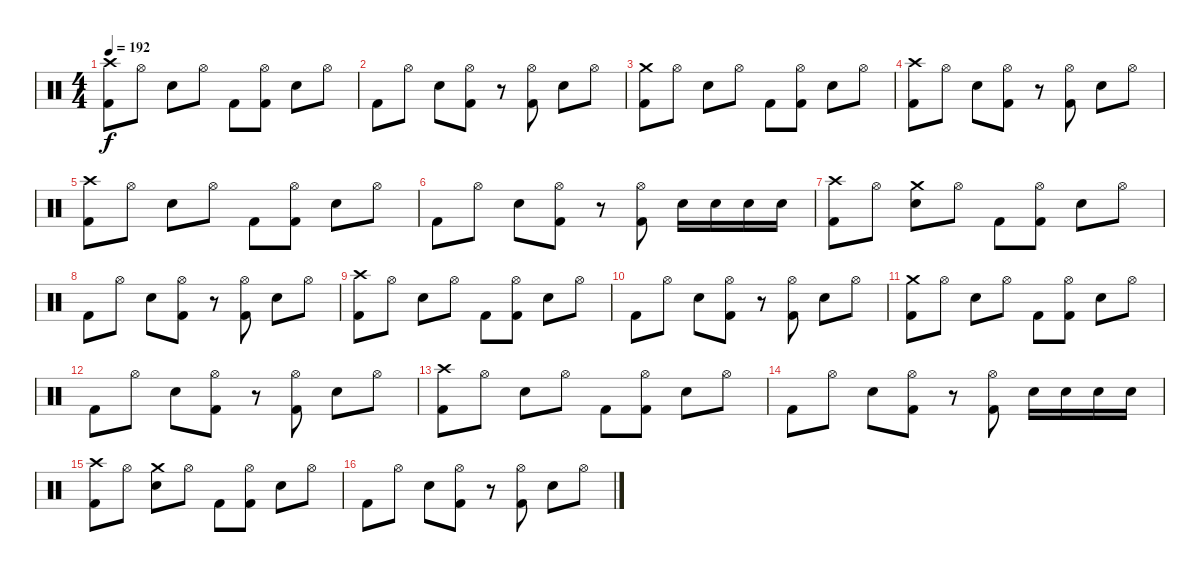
\track "" {instrument percussion}
\staff {score}
\articulation defaults
\ts (4 4)
\tempo 192
\clef neutral
\ks c
("Crash high (hit)" "Kick (hit) 2").8{dy f} "Hi-Hat (open)".8 "Snare (hit) 2".8 "Hi-Hat (open)".8 "Kick (hit) 2".8 ("Hi-Hat (open)" "Kick (hit) 2").8 "Snare (hit) 2".8 "Hi-Hat (open)".8 |
"Kick (hit) 2".8 "Hi-Hat (open)".8 "Snare (hit) 2".8 ("Hi-Hat (open)" "Kick (hit) 2").8 r.8 ("Hi-Hat (open)" "Kick (hit) 2").8 "Snare (hit) 2".8 "Hi-Hat (open)".8 |
("Crash medium (hit)" "Kick (hit) 2").8 "Hi-Hat (open)".8 "Snare (hit) 2".8 "Hi-Hat (open)".8 "Kick (hit) 2".8 ("Hi-Hat (open)" "Kick (hit) 2").8 "Snare (hit) 2".8 "Hi-Hat (open)".8 |
("Crash high (hit)" "Kick (hit) 2").8 "Hi-Hat (open)".8 "Snare (hit) 2".8 ("Hi-Hat (open)" "Kick (hit) 2").8 r.8 ("Hi-Hat (open)" "Kick (hit) 2").8 "Snare (hit) 2".8 "Hi-Hat (open)".8 |
("Crash high (hit)" "Kick (hit) 2").8 "Hi-Hat (open)".8 "Snare (hit) 2".8 "Hi-Hat (open)".8 "Kick (hit) 2".8 ("Hi-Hat (open)" "Kick (hit) 2").8 "Snare (hit) 2".8 "Hi-Hat (open)".8 |
"Kick (hit) 2".8 "Hi-Hat (open)".8 "Snare (hit) 2".8 ("Hi-Hat (open)" "Kick (hit) 2").8 r.8 ("Hi-Hat (open)" "Kick (hit) 2").8 "Snare (hit) 2".16 "Snare (hit) 2".16 "Snare (hit) 2".16 "Snare (hit) 2".16 |
("Crash high (hit)" "Kick (hit) 2").8 "Hi-Hat (open)".8 ("Crash medium (hit)" "Snare (hit) 2").8 "Hi-Hat (open)".8 "Kick (hit) 2".8 ("Hi-Hat (open)" "Kick (hit) 2").8 "Snare (hit) 2".8 "Hi-Hat (open)".8 |
"Kick (hit) 2".8 "Hi-Hat (open)".8 "Snare (hit) 2".8 ("Hi-Hat (open)" "Kick (hit) 2").8 r.8 ("Hi-Hat (open)" "Kick (hit) 2").8 "Snare (hit) 2".8 "Hi-Hat (open)".8 |
("Crash high (hit)" "Kick (hit) 2").8 "Hi-Hat (open)".8 "Snare (hit) 2".8 "Hi-Hat (open)".8 "Kick (hit) 2".8 ("Hi-Hat (open)" "Kick (hit) 2").8 "Snare (hit) 2".8 "Hi-Hat (open)".8 |
"Kick (hit) 2".8 "Hi-Hat (open)".8 "Snare (hit) 2".8 ("Hi-Hat (open)" "Kick (hit) 2").8 r.8 ("Hi-Hat (open)" "Kick (hit) 2").8 "Snare (hit) 2".8 "Hi-Hat (open)".8 |
("Crash medium (hit)" "Kick (hit) 2").8 "Hi-Hat (open)".8 "Snare (hit) 2".8 "Hi-Hat (open)".8 "Kick (hit) 2".8 ("Hi-Hat (open)" "Kick (hit) 2").8 "Snare (hit) 2".8 "Hi-Hat (open)".8 |
"Kick (hit) 2".8 "Hi-Hat (open)".8 "Snare (hit) 2".8 ("Hi-Hat (open)" "Kick (hit) 2").8 r.8 ("Hi-Hat (open)" "Kick (hit) 2").8 "Snare (hit) 2".8 "Hi-Hat (open)".8 |
("Crash high (hit)" "Kick (hit) 2").8 "Hi-Hat (open)".8 "Snare (hit) 2".8 "Hi-Hat (open)".8 "Kick (hit) 2".8 ("Hi-Hat (open)" "Kick (hit) 2").8 "Snare (hit) 2".8 "Hi-Hat (open)".8 |
"Kick (hit) 2".8 "Hi-Hat (open)".8 "Snare (hit) 2".8 ("Hi-Hat (open)" "Kick (hit) 2").8 r.8 ("Hi-Hat (open)" "Kick (hit) 2").8 "Snare (hit) 2".16 "Snare (hit) 2".16 "Snare (hit) 2".16 "Snare (hit) 2".16 |
("Crash high (hit)" "Kick (hit) 2").8 "Hi-Hat (open)".8 ("Crash medium (hit)" "Snare (hit) 2").8 "Hi-Hat (open)".8 "Kick (hit) 2".8 ("Hi-Hat (open)" "Kick (hit) 2").8 "Snare (hit) 2".8 "Hi-Hat (open)".8 |
"Kick (hit) 2".8 "Hi-Hat (open)".8 "Snare (hit) 2".8 ("Hi-Hat (open)" "Kick (hit) 2").8 r.8 ("Hi-Hat (open)" "Kick (hit) 2").8 "Snare (hit) 2".8 "Hi-Hat (open)".8
